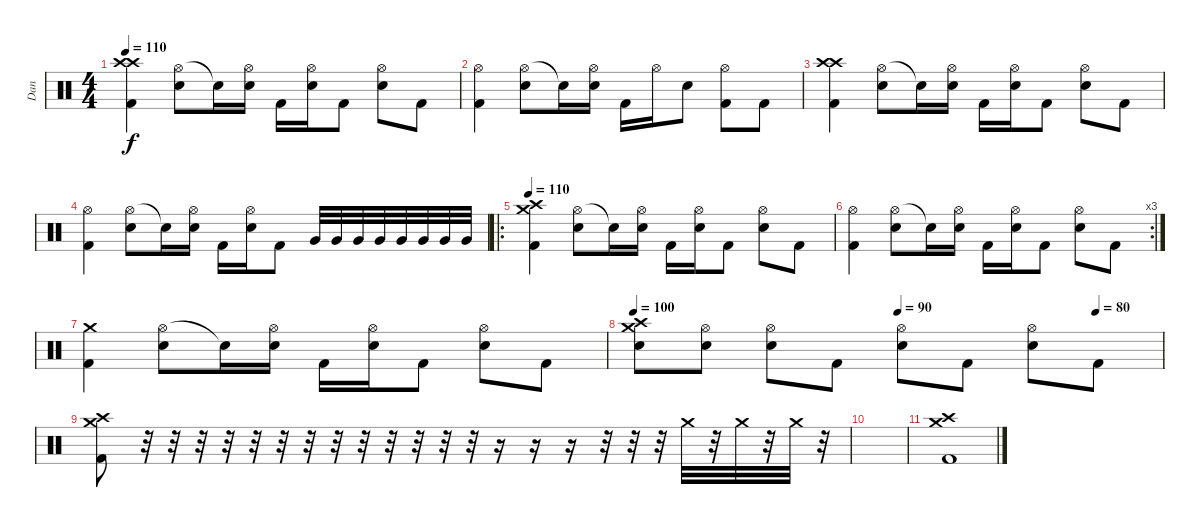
\track ("Dan" "Dan") {instrument percussion}
\staff {score}
\articulation defaults
\ts (4 4)
\tempo 110
\clef neutral
\ks c
("Crash high (hit)" "Crash high (hit)" "Kick (hit) 2").4{dy f} ("Hi-Hat (open)" "Snare (hit) 2").8 "Snare (hit) 2"{t}.16 ("Hi-Hat (open)" "Snare (hit) 2").16 "Kick (hit) 2".16 ("Hi-Hat (open)" "Snare (hit) 2").16 "Kick (hit) 2".8 ("Hi-Hat (open)" "Snare (hit) 2").8 "Kick (hit) 2".8 |
("Hi-Hat (open)" "Kick (hit) 2").4 ("Hi-Hat (open)" "Snare (hit) 2").8 "Snare (hit) 2"{t}.16 ("Hi-Hat (open)" "Snare (hit) 2").16 "Kick (hit) 2".16 "Hi-Hat (open)".16 "Snare (hit) 2".8 ("Hi-Hat (open)" "Kick (hit) 2").8 "Kick (hit) 2".8 |
("Crash high (hit)" "Crash high (hit)" "Kick (hit) 2").4 ("Hi-Hat (open)" "Snare (hit) 2").8 "Snare (hit) 2"{t}.16 ("Hi-Hat (open)" "Snare (hit) 2").16 "Kick (hit) 2".16 ("Hi-Hat (open)" "Snare (hit) 2").16 "Kick (hit) 2".8 ("Hi-Hat (open)" "Snare (hit) 2").8 "Kick (hit) 2".8 |
("Hi-Hat (open)" "Kick (hit) 2").4 ("Hi-Hat (open)" "Snare (hit) 2").8 "Snare (hit) 2"{t}.16 ("Hi-Hat (open)" "Snare (hit) 2").16 "Kick (hit) 2".16 ("Hi-Hat (open)" "Snare (hit) 2").16 "Kick (hit) 2".8 "Very Low Tom (hit)".32 "Very Low Tom (hit)".32 "Very Low Tom (hit)".32 "Very Low Tom (hit)".32 "Very Low Tom (hit)".32 "Very Low Tom (hit)".32 "Very Low Tom (hit)".32 "Very Low Tom (hit)".32 |
\ro
\tempo 110
("Crash medium (hit)" "Crash high (hit)" "Kick (hit) 2").4 ("Hi-Hat (open)" "Snare (hit) 2").8 "Snare (hit) 2"{t}.16 ("Hi-Hat (open)" "Snare (hit) 2").16 "Kick (hit) 2".16 ("Hi-Hat (open)" "Snare (hit) 2").16 "Kick (hit) 2".8 ("Hi-Hat (open)" "Snare (hit) 2").8 "Kick (hit) 2".8 |
\rc 3
("Hi-Hat (open)" "Kick (hit) 2").4 ("Hi-Hat (open)" "Snare (hit) 2").8 "Snare (hit) 2"{t}.16 ("Hi-Hat (open)" "Snare (hit) 2").16 "Kick (hit) 2".16 ("Hi-Hat (open)" "Snare (hit) 2").16 "Kick (hit) 2".8 ("Hi-Hat (open)" "Snare (hit) 2").8 "Kick (hit) 2".8 |
("Crash medium (hit)" "Kick (hit) 2").4 ("Hi-Hat (open)" "Snare (hit) 2").8 "Snare (hit) 2"{t}.16 ("Hi-Hat (open)" "Snare (hit) 2").16 "Kick (hit) 2".16 ("Hi-Hat (open)" "Snare (hit) 2").16 "Kick (hit) 2".8 ("Hi-Hat (open)" "Snare (hit) 2").8 "Kick (hit) 2".8 |
\tempo 100
\tempo (90 0.5)
\tempo (80 0.875)
("Crash medium (hit)" "Crash high (hit)" "Snare (hit) 2").8 ("Hi-Hat (open)" "Snare (hit) 2").8 ("Hi-Hat (open)" "Snare (hit) 2").8 "Kick (hit) 2".8 ("Hi-Hat (open)" "Snare (hit) 2").8 "Kick (hit) 2".8 ("Hi-Hat (open)" "Snare (hit) 2").8 "Kick (hit) 2".8 |
("Crash high (hit)" "Crash medium (hit)" "Kick (hit) 2").8 r.32 r.32 r.32 r.32 r.32 r.32 r.32 r.32 r.32 r.32 r.32 r.32 r.32 r.16 r.16 r.16 r.32 r.32 r.32 "Crash medium (hit)".32 r.32 "Crash medium (hit)".32 r.32 "Crash medium (hit)".32 r.32 |
|
("Crash medium (hit)" "Crash high (hit)" "Kick (hit) 2").1
